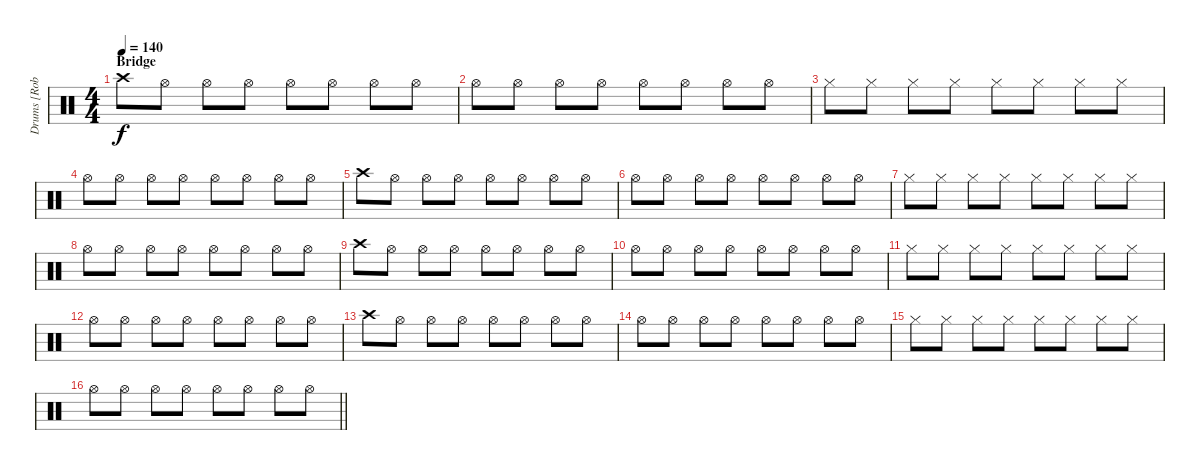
\track ("Drums [Rob Bourdon]" "Drums [Rob") {instrument percussion}
\staff {score}
\articulation defaults
\ts (4 4)
\section ("" "Bridge")
\tempo 140
\clef neutral
\ks c "Crash high (hit)".8{dy f} "Hi-Hat (open)".8 "Hi-Hat (open)".8 "Hi-Hat (open)".8 "Hi-Hat (open)".8 "Hi-Hat (open)".8 "Hi-Hat (open)".8 "Hi-Hat (open)".8
|
"Hi-Hat (open)".8 "Hi-Hat (open)".8 "Hi-Hat (open)".8 "Hi-Hat (open)".8 "Hi-Hat (open)".8 "Hi-Hat (open)".8 "Hi-Hat (open)".8 "Hi-Hat (open)".8 |
"Hi-Hat (closed)".8{volume 0} "Hi-Hat (closed)".8{volume 8} "Hi-Hat (closed)".8 "Hi-Hat (closed)".8 "Hi-Hat (closed)".8 "Hi-Hat (closed)".8 "Hi-Hat (closed)".8 "Hi-Hat (closed)".8 |
"Hi-Hat (open)".8 "Hi-Hat (open)".8 "Hi-Hat (open)".8 "Hi-Hat (open)".8 "Hi-Hat (open)".8 "Hi-Hat (open)".8 "Hi-Hat (open)".8 "Hi-Hat (open)".8 |
"Crash high (hit)".8 "Hi-Hat (open)".8 "Hi-Hat (open)".8 "Hi-Hat (open)".8 "Hi-Hat (open)".8 "Hi-Hat (open)".8 "Hi-Hat (open)".8 "Hi-Hat (open)".8 |
"Hi-Hat (open)".8 "Hi-Hat (open)".8 "Hi-Hat (open)".8 "Hi-Hat (open)".8 "Hi-Hat (open)".8 "Hi-Hat (open)".8 "Hi-Hat (open)".8 "Hi-Hat (open)".8 |
"Hi-Hat (closed)".8{volume 0} "Hi-Hat (closed)".8{volume 8} "Hi-Hat (closed)".8 "Hi-Hat (closed)".8 "Hi-Hat (closed)".8 "Hi-Hat (closed)".8 "Hi-Hat (closed)".8 "Hi-Hat (closed)".8 |
"Hi-Hat (open)".8 "Hi-Hat (open)".8 "Hi-Hat (open)".8 "Hi-Hat (open)".8 "Hi-Hat (open)".8 "Hi-Hat (open)".8 "Hi-Hat (open)".8 "Hi-Hat (open)".8 |
"Crash high (hit)".8 "Hi-Hat (open)".8 "Hi-Hat (open)".8 "Hi-Hat (open)".8 "Hi-Hat (open)".8 "Hi-Hat (open)".8 "Hi-Hat (open)".8 "Hi-Hat (open)".8 |
"Hi-Hat (open)".8 "Hi-Hat (open)".8 "Hi-Hat (open)".8 "Hi-Hat (open)".8 "Hi-Hat (open)".8 "Hi-Hat (open)".8 "Hi-Hat (open)".8 "Hi-Hat (open)".8 |
"Hi-Hat (closed)".8{volume 0} "Hi-Hat (closed)".8{volume 8} "Hi-Hat (closed)".8 "Hi-Hat (closed)".8 "Hi-Hat (closed)".8 "Hi-Hat (closed)".8 "Hi-Hat (closed)".8 "Hi-Hat (closed)".8 |
"Hi-Hat (open)".8 "Hi-Hat (open)".8 "Hi-Hat (open)".8 "Hi-Hat (open)".8 "Hi-Hat (open)".8 "Hi-Hat (open)".8 "Hi-Hat (open)".8 "Hi-Hat (open)".8 |
"Crash high (hit)".8 "Hi-Hat (open)".8 "Hi-Hat (open)".8 "Hi-Hat (open)".8 "Hi-Hat (open)".8 "Hi-Hat (open)".8 "Hi-Hat (open)".8 "Hi-Hat (open)".8 |
"Hi-Hat (open)".8 "Hi-Hat (open)".8 "Hi-Hat (open)".8 "Hi-Hat (open)".8 "Hi-Hat (open)".8 "Hi-Hat (open)".8 "Hi-Hat (open)".8 "Hi-Hat (open)".8 |
"Hi-Hat (closed)".8{volume 0} "Hi-Hat (closed)".8{volume 8} "Hi-Hat (closed)".8 "Hi-Hat (closed)".8 "Hi-Hat (closed)".8 "Hi-Hat (closed)".8 "Hi-Hat (closed)".8 "Hi-Hat (closed)".8 |
\barLineRight lightlight "Hi-Hat (open)".8 "Hi-Hat (open)".8 "Hi-Hat (open)".8 "Hi-Hat (open)".8 "Hi-Hat (open)".8 "Hi-Hat (open)".8 "Hi-Hat (open)".8 "Hi-Hat (open)".8
